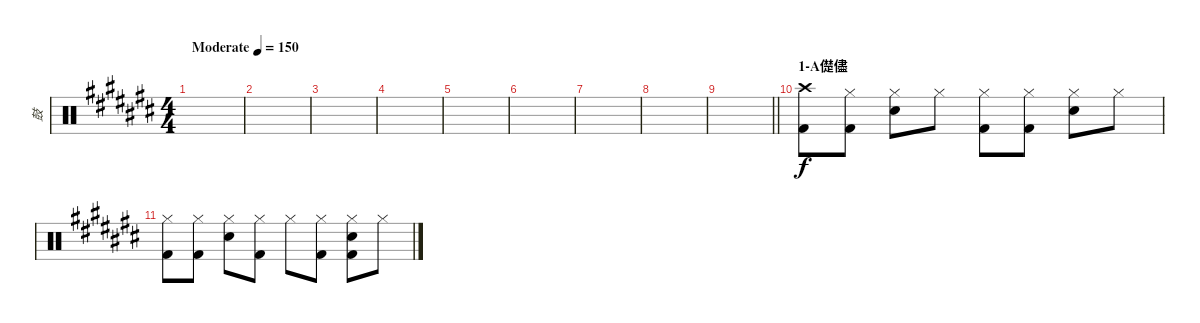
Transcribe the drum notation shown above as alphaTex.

\track ("鼓" "鼓") {instrument percussion}
\staff {score}
\articulation defaults
\ts (4 4)
\tempo (150 "Moderate")
\clef neutral
\ks c#
|
|
|
|
|
|
|
|
\barLineRight lightlight
|
\section ("" "1-A儊儘")
("Crash high (hit)" "Kick (hit) 2").8 ("Hi-Hat (closed)" "Kick (hit) 2").8 ("Hi-Hat (closed)" "Electric Snare (hit)").8 "Hi-Hat (closed)".8 ("Hi-Hat (closed)" "Kick (hit) 2").8 ("Hi-Hat (closed)" "Kick (hit) 2").8 ("Hi-Hat (closed)" "Electric Snare (hit)").8 "Hi-Hat (closed)".8 |
("Hi-Hat (closed)" "Kick (hit) 2").8 ("Hi-Hat (closed)" "Kick (hit) 2").8 ("Hi-Hat (closed)" "Electric Snare (hit)").8 ("Hi-Hat (closed)" "Kick (hit) 2").8 "Hi-Hat (closed)".8 ("Hi-Hat (closed)" "Kick (hit) 2").8 ("Hi-Hat (closed)" "Electric Snare (hit)" "Kick (hit) 2").8 "Hi-Hat (closed)".8
